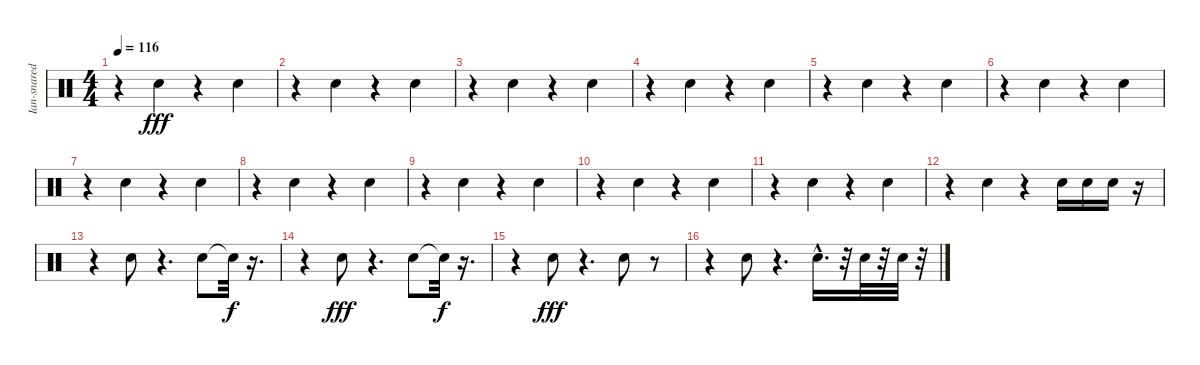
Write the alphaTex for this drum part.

\track ("Ian-snaredrum" "Ian-snared") {instrument percussion}
\staff {score}
\articulation defaults
\ts (4 4)
\tempo 116
\clef neutral
\ks c
r.4{dy fff} "Electric Snare (hit)".4 r.4 "Electric Snare (hit)".4 |
r.4 "Electric Snare (hit)".4 r.4 "Electric Snare (hit)".4 |
r.4 "Electric Snare (hit)".4 r.4 "Electric Snare (hit)".4 |
r.4 "Electric Snare (hit)".4 r.4 "Electric Snare (hit)".4 |
r.4 "Electric Snare (hit)".4 r.4 "Electric Snare (hit)".4 |
r.4 "Electric Snare (hit)".4 r.4 "Electric Snare (hit)".4 |
r.4 "Electric Snare (hit)".4 r.4 "Electric Snare (hit)".4 |
r.4 "Electric Snare (hit)".4 r.4 "Electric Snare (hit)".4 |
r.4 "Electric Snare (hit)".4 r.4 "Electric Snare (hit)".4 |
r.4 "Electric Snare (hit)".4 r.4 "Electric Snare (hit)".4 |
r.4 "Electric Snare (hit)".4 r.4 "Electric Snare (hit)".4 |
r.4 "Electric Snare (hit)".4 r.4 "Electric Snare (hit)".16 "Electric Snare (hit)".16 "Electric Snare (hit)".16 r.16 |
r.4 "Electric Snare (hit)".8 r.4{d} "Electric Snare (hit)".8 "Snare (hit)"{t}.32{dy f} r.16{d} |
r.4 "Electric Snare (hit)".8{dy fff} r.4{d} "Electric Snare (hit)".8 "Snare (hit)"{t}.32{dy f} r.16{d} |
r.4 "Electric Snare (hit)".8{dy fff} r.4{d} "Electric Snare (hit)".8 r.8 |
r.4 "Electric Snare (hit)".8 r.4{d} "Electric Snare (hit)"{hac}.16{d} r.32 "Electric Snare (hit)".32 r.32 "Electric Snare (hit)".32 r.32
